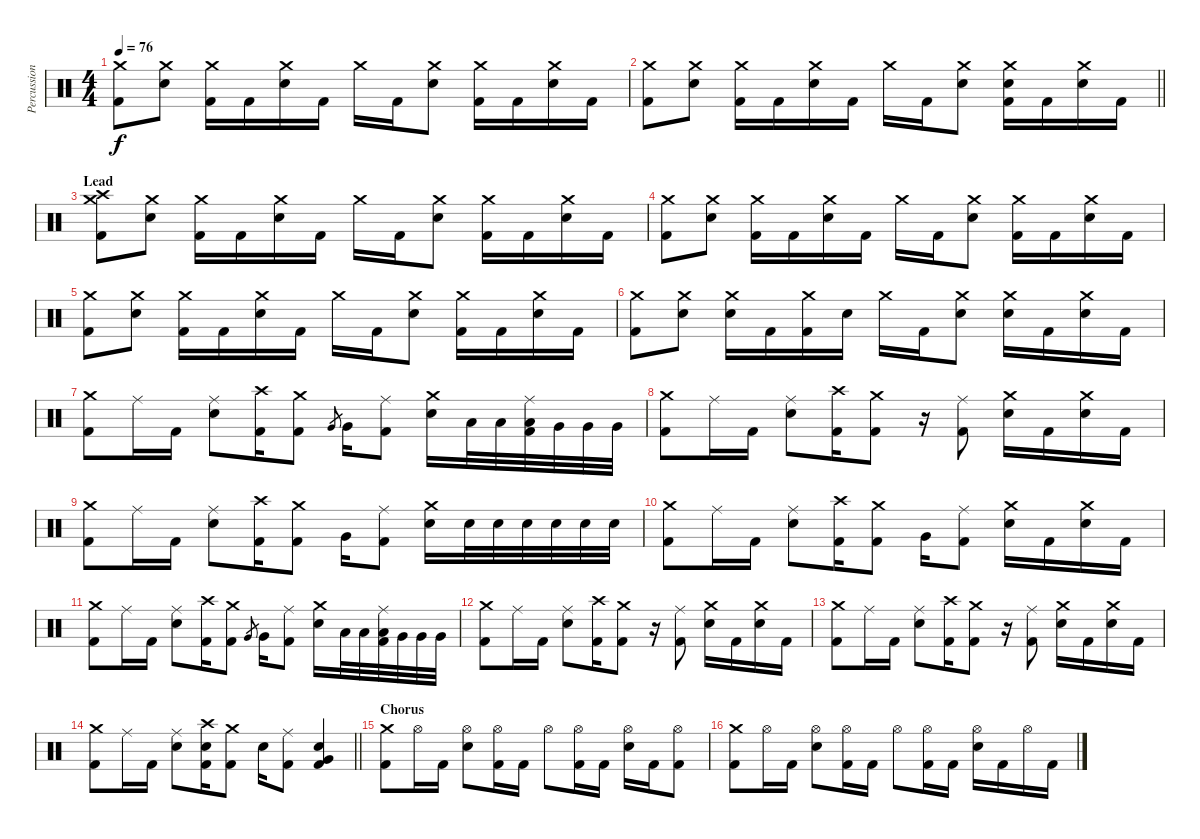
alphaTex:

\track ("Percussion" "Percussion") {instrument percussion}
\staff {score}
\articulation defaults
\ts (4 4)
\tempo 76
\clef neutral
\ks c
("Crash medium (hit)" "Kick (hit) 2").8{dy f} ("Crash medium (hit)" "Electric Snare (hit)").8 ("Crash medium (hit)" "Kick (hit) 2").16 "Kick (hit) 2".16 ("Crash medium (hit)" "Electric Snare (hit)").16 "Kick (hit) 2".16 "Crash medium (hit)".16 "Kick (hit) 2".16 ("Crash medium (hit)" "Electric Snare (hit)").8 ("Crash medium (hit)" "Kick (hit) 2").16 "Kick (hit) 2".16 ("Crash medium (hit)" "Electric Snare (hit)").16 "Kick (hit) 2".16 |
\barLineRight lightlight
("Crash medium (hit)" "Kick (hit) 2").8 ("Crash medium (hit)" "Electric Snare (hit)").8 ("Crash medium (hit)" "Kick (hit) 2").16 "Kick (hit) 2".16 ("Crash medium (hit)" "Electric Snare (hit)").16 "Kick (hit) 2".16 "Crash medium (hit)".16 "Kick (hit) 2".16 ("Crash medium (hit)" "Electric Snare (hit)").8 ("Crash medium (hit)" "Electric Snare (hit)" "Kick (hit) 2").16 "Kick (hit) 2".16 ("Crash medium (hit)" "Electric Snare (hit)").16 "Kick (hit) 2".16 |
\section ("" "Lead")
("Crash medium (hit)" "Crash high (hit)" "Kick (hit) 2").8 ("Crash medium (hit)" "Electric Snare (hit)").8 ("Crash medium (hit)" "Kick (hit) 2").16 "Kick (hit) 2".16 ("Crash medium (hit)" "Electric Snare (hit)").16 "Kick (hit) 2".16 "Crash medium (hit)".16 "Kick (hit) 2".16 ("Crash medium (hit)" "Electric Snare (hit)").8 ("Crash medium (hit)" "Kick (hit) 2").16 "Kick (hit) 2".16 ("Crash medium (hit)" "Electric Snare (hit)").16 "Kick (hit) 2".16 |
("Crash medium (hit)" "Kick (hit) 2").8 ("Crash medium (hit)" "Electric Snare (hit)").8 ("Crash medium (hit)" "Kick (hit) 2").16 "Kick (hit) 2".16 ("Crash medium (hit)" "Electric Snare (hit)").16 "Kick (hit) 2".16 "Crash medium (hit)".16 "Kick (hit) 2".16 ("Crash medium (hit)" "Electric Snare (hit)").8 ("Crash medium (hit)" "Kick (hit) 2").16 "Kick (hit) 2".16 ("Crash medium (hit)" "Electric Snare (hit)").16 "Kick (hit) 2".16 |
("Crash medium (hit)" "Kick (hit) 2").8 ("Crash medium (hit)" "Electric Snare (hit)").8 ("Crash medium (hit)" "Kick (hit) 2").16 "Kick (hit) 2".16 ("Crash medium (hit)" "Electric Snare (hit)").16 "Kick (hit) 2".16 "Crash medium (hit)".16 "Kick (hit) 2".16 ("Crash medium (hit)" "Electric Snare (hit)").8 ("Crash medium (hit)" "Kick (hit) 2").16 "Kick (hit) 2".16 ("Crash medium (hit)" "Electric Snare (hit)").16 "Kick (hit) 2".16 |
("Crash medium (hit)" "Kick (hit) 2").8 ("Crash medium (hit)" "Electric Snare (hit)").8 ("Crash medium (hit)" "Electric Snare (hit)").16 "Kick (hit) 2".16 ("Crash medium (hit)" "Kick (hit) 2").16 "Electric Snare (hit)".16 "Crash medium (hit)".16 "Kick (hit) 2".16 ("Crash medium (hit)" "Electric Snare (hit)").8 ("Crash medium (hit)" "Electric Snare (hit)").16 "Kick (hit) 2".16 ("Crash medium (hit)" "Electric Snare (hit)").16 "Kick (hit) 2".16 |
("Crash medium (hit)" "Kick (hit) 2").8 "Ride (middle)".16 "Kick (hit) 2".16 ("Ride (middle)" "Electric Snare (hit)").8 ("Crash high (hit)" "Kick (hit) 2").16 ("Crash medium (hit)" "Kick (hit) 2").8 "Very Low Tom (hit)".8{gr} "Very Low Tom (hit)".16 ("Ride (middle)" "Kick (hit) 2").8 ("Crash medium (hit)" "Electric Snare (hit)").16 "Low Tom (hit)".32 "Low Tom (hit)".32 ("Ride (middle)" "Low Tom (hit)" "Kick (hit) 2").32 "Very Low Tom (hit)".32 "Very Low Tom (hit)".32 "Very Low Tom (hit)".32 |
("Crash medium (hit)" "Kick (hit) 2").8 "Ride (middle)".16 "Kick (hit) 2".16 ("Ride (middle)" "Electric Snare (hit)").8 ("Crash high (hit)" "Kick (hit) 2").16 ("Crash medium (hit)" "Kick (hit) 2").8 r.16 ("Ride (middle)" "Kick (hit) 2").8 ("Crash medium (hit)" "Electric Snare (hit)").16 "Kick (hit) 2".16 ("Crash medium (hit)" "Electric Snare (hit)").16 "Kick (hit) 2".16 |
("Crash medium (hit)" "Kick (hit) 2").8 "Ride (middle)".16 "Kick (hit) 2".16 ("Ride (middle)" "Electric Snare (hit)").8 ("Crash high (hit)" "Kick (hit) 2").16 ("Crash medium (hit)" "Kick (hit) 2").8 "Very Low Tom (hit)".16 ("Ride (middle)" "Kick (hit) 2").8 ("Crash medium (hit)" "Electric Snare (hit)").16 "Electric Snare (hit)".32 "Electric Snare (hit)".32 "Electric Snare (hit)".32 "Electric Snare (hit)".32 "Electric Snare (hit)".32 "Electric Snare (hit)".32 |
("Crash medium (hit)" "Kick (hit) 2").8 "Ride (middle)".16 "Kick (hit) 2".16 ("Ride (middle)" "Electric Snare (hit)").8 ("Crash high (hit)" "Kick (hit) 2").16 ("Crash medium (hit)" "Kick (hit) 2").8 "Very Low Tom (hit)".16 ("Ride (middle)" "Kick (hit) 2").8 ("Crash medium (hit)" "Electric Snare (hit)").16 "Kick (hit) 2".16 ("Crash medium (hit)" "Electric Snare (hit)").16 "Kick (hit) 2".16 |
("Crash medium (hit)" "Kick (hit) 2").8 "Ride (middle)".16 "Kick (hit) 2".16 ("Ride (middle)" "Electric Snare (hit)").8 ("Crash high (hit)" "Kick (hit) 2").16 ("Crash medium (hit)" "Kick (hit) 2").8 "Very Low Tom (hit)".8{gr} "Very Low Tom (hit)".16 ("Ride (middle)" "Kick (hit) 2").8 ("Crash medium (hit)" "Electric Snare (hit)").16 "Low Tom (hit)".32 "Low Tom (hit)".32 ("Ride (middle)" "Low Tom (hit)" "Kick (hit) 2").32 "Very Low Tom (hit)".32 "Very Low Tom (hit)".32 "Very Low Tom (hit)".32 |
("Crash medium (hit)" "Kick (hit) 2").8 "Ride (middle)".16 "Kick (hit) 2".16 ("Ride (middle)" "Electric Snare (hit)").8 ("Crash high (hit)" "Kick (hit) 2").16 ("Crash medium (hit)" "Kick (hit) 2").8 r.16 ("Ride (middle)" "Kick (hit) 2").8 ("Crash medium (hit)" "Electric Snare (hit)").16 "Kick (hit) 2".16 ("Crash medium (hit)" "Electric Snare (hit)").16 "Kick (hit) 2".16 |
("Crash medium (hit)" "Kick (hit) 2").8 "Ride (middle)".16 "Kick (hit) 2".16 ("Ride (middle)" "Electric Snare (hit)").8 ("Crash high (hit)" "Kick (hit) 2").16 ("Crash medium (hit)" "Kick (hit) 2").8 r.16 ("Ride (middle)" "Kick (hit) 2").8 ("Crash medium (hit)" "Electric Snare (hit)").16 "Kick (hit) 2".16 ("Crash medium (hit)" "Electric Snare (hit)").16 "Kick (hit) 2".16 |
\barLineRight lightlight
("Crash medium (hit)" "Kick (hit) 2").8 "Ride (middle)".16 "Kick (hit) 2".16 ("Ride (middle)" "Electric Snare (hit)").8 ("Crash high (hit)" "Electric Snare (hit)" "Kick (hit) 2").16 ("Crash medium (hit)" "Kick (hit) 2").8 "Electric Snare (hit)".16 ("Ride (middle)" "Kick (hit) 2").8 ("Very Low Tom (hit)" "Electric Snare (hit)" "Kick (hit) 2").4 |
\section ("" "Chorus")
("Crash medium (hit)" "Kick (hit) 2").8 "Hi-Hat (open)".16 "Kick (hit) 2".16 ("Hi-Hat (open)" "Electric Snare (hit)").8 ("Hi-Hat (open)" "Kick (hit) 2").16 "Kick (hit) 2".16 "Hi-Hat (open)".8 ("Hi-Hat (open)" "Kick (hit) 2").16 "Kick (hit) 2".16 ("Hi-Hat (open)" "Electric Snare (hit)").16 "Kick (hit) 2".16 ("Hi-Hat (open)" "Kick (hit) 2").8 |
("Crash medium (hit)" "Kick (hit) 2").8 "Hi-Hat (open)".16 "Kick (hit) 2".16 ("Hi-Hat (open)" "Electric Snare (hit)").8 ("Hi-Hat (open)" "Kick (hit) 2").16 "Kick (hit) 2".16 "Hi-Hat (open)".8 ("Hi-Hat (open)" "Kick (hit) 2").16 "Kick (hit) 2".16 ("Hi-Hat (open)" "Electric Snare (hit)").16 "Kick (hit) 2".16 "Hi-Hat (open)".16 "Kick (hit) 2".16
